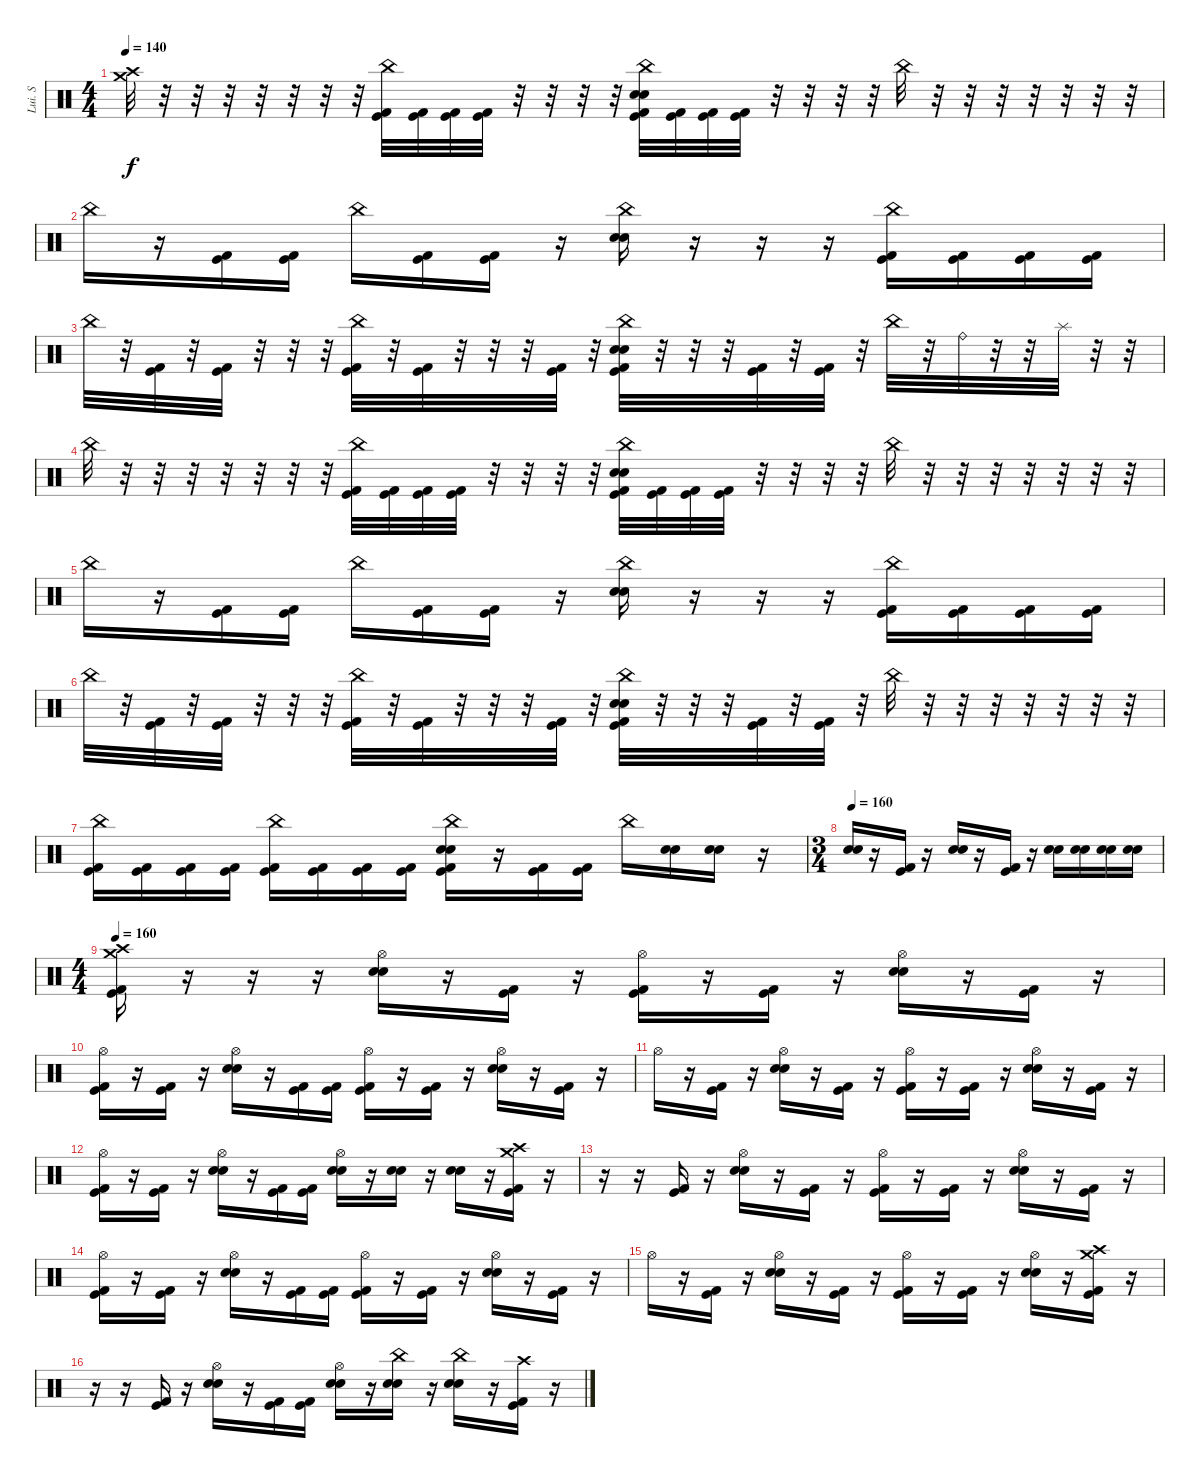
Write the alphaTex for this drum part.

\track ("Lui. S" "Lui. S") {instrument percussion}
\staff {score}
\articulation defaults
\ts (4 4)
\tempo 140
\clef neutral
\ks c
("Crash medium (hit)" "Crash high (hit)").32{dy f} r.32 r.32 r.32 r.32 r.32 r.32 r.32 ("China (hit)" "Kick (hit) 2" "Kick (hit)").32 ("Kick (hit) 2" "Kick (hit)").32 ("Kick (hit) 2" "Kick (hit)").32 ("Kick (hit) 2" "Kick (hit)").32 r.32 r.32 r.32 r.32 ("China (hit)" "Snare (hit) 2" "Electric Snare (hit)" "Kick (hit) 2" "Kick (hit)").32 ("Kick (hit) 2" "Kick (hit)").32 ("Kick (hit) 2" "Kick (hit)").32 ("Kick (hit) 2" "Kick (hit)").32 r.32 r.32 r.32 r.32 "China (hit)".32 r.32 r.32 r.32 r.32 r.32 r.32 r.32 |
"China (hit)".16 r.16 ("Kick (hit) 2" "Kick (hit)").16 ("Kick (hit) 2" "Kick (hit)").16 "China (hit)".16 ("Kick (hit) 2" "Kick (hit)").16 ("Kick (hit) 2" "Kick (hit)").16 r.16 ("China (hit)" "Snare (hit) 2" "Electric Snare (hit)").16 r.16 r.16 r.16 ("China (hit)" "Kick (hit) 2" "Kick (hit)").16 ("Kick (hit) 2" "Kick (hit)").16 ("Kick (hit) 2" "Kick (hit)").16 ("Kick (hit) 2" "Kick (hit)").16 |
"China (hit)".32 r.32 ("Kick (hit) 2" "Kick (hit)").32 r.32 ("Kick (hit) 2" "Kick (hit)").32 r.32 r.32 r.32 ("China (hit)" "Kick (hit) 2" "Kick (hit)").32 r.32 ("Kick (hit) 2" "Kick (hit)").32 r.32 r.32 r.32 ("Kick (hit) 2" "Kick (hit)").32 r.32 ("China (hit)" "Snare (hit) 2" "Electric Snare (hit)" "Kick (hit) 2" "Kick (hit)").32 r.32 r.32 r.32 ("Kick (hit) 2" "Kick (hit)").32 r.32 ("Kick (hit) 2" "Kick (hit)").32 r.32 "China (hit)".32 r.32 "Ride (bell)".32 r.32 r.32 "Splash (hit)".32 r.32 r.32 |
"China (hit)".32 r.32 r.32 r.32 r.32 r.32 r.32 r.32 ("China (hit)" "Kick (hit) 2" "Kick (hit)").32 ("Kick (hit) 2" "Kick (hit)").32 ("Kick (hit) 2" "Kick (hit)").32 ("Kick (hit) 2" "Kick (hit)").32 r.32 r.32 r.32 r.32 ("China (hit)" "Snare (hit) 2" "Electric Snare (hit)" "Kick (hit) 2" "Kick (hit)").32 ("Kick (hit) 2" "Kick (hit)").32 ("Kick (hit) 2" "Kick (hit)").32 ("Kick (hit) 2" "Kick (hit)").32 r.32 r.32 r.32 r.32 "China (hit)".32 r.32 r.32 r.32 r.32 r.32 r.32 r.32 |
"China (hit)".16 r.16 ("Kick (hit) 2" "Kick (hit)").16 ("Kick (hit) 2" "Kick (hit)").16 "China (hit)".16 ("Kick (hit) 2" "Kick (hit)").16 ("Kick (hit) 2" "Kick (hit)").16 r.16 ("China (hit)" "Snare (hit) 2" "Electric Snare (hit)").16 r.16 r.16 r.16 ("China (hit)" "Kick (hit) 2" "Kick (hit)").16 ("Kick (hit) 2" "Kick (hit)").16 ("Kick (hit) 2" "Kick (hit)").16 ("Kick (hit) 2" "Kick (hit)").16 |
"China (hit)".32 r.32 ("Kick (hit) 2" "Kick (hit)").32 r.32 ("Kick (hit) 2" "Kick (hit)").32 r.32 r.32 r.32 ("China (hit)" "Kick (hit) 2" "Kick (hit)").32 r.32 ("Kick (hit) 2" "Kick (hit)").32 r.32 r.32 r.32 ("Kick (hit) 2" "Kick (hit)").32 r.32 ("China (hit)" "Snare (hit) 2" "Electric Snare (hit)" "Kick (hit) 2" "Kick (hit)").32 r.32 r.32 r.32 ("Kick (hit) 2" "Kick (hit)").32 r.32 ("Kick (hit) 2" "Kick (hit)").32 r.32 "China (hit)".32 r.32 r.32 r.32 r.32 r.32 r.32 r.32 |
("China (hit)" "Kick (hit) 2" "Kick (hit)").16 ("Kick (hit) 2" "Kick (hit)").16 ("Kick (hit) 2" "Kick (hit)").16 ("Kick (hit) 2" "Kick (hit)").16 ("China (hit)" "Kick (hit) 2" "Kick (hit)").16 ("Kick (hit) 2" "Kick (hit)").16 ("Kick (hit) 2" "Kick (hit)").16 ("Kick (hit) 2" "Kick (hit)").16 ("China (hit)" "Electric Snare (hit)" "Snare (hit) 2" "Kick (hit) 2" "Kick (hit)").16 r.16 ("Kick (hit) 2" "Kick (hit)").16 ("Kick (hit) 2" "Kick (hit)").16 "China (hit)".16 ("Snare (hit) 2" "Electric Snare (hit)").16 ("Snare (hit) 2" "Electric Snare (hit)").16 r.16 |
\ts (3 4)
\tempo 160
("Snare (hit) 2" "Electric Snare (hit)").16 r.16 ("Kick (hit) 2" "Kick (hit)").16 r.16 ("Snare (hit) 2" "Electric Snare (hit)").16 r.16 ("Kick (hit)" "Kick (hit) 2").16 r.16 ("Snare (hit) 2" "Electric Snare (hit)").16 ("Snare (hit) 2" "Electric Snare (hit)").16 ("Snare (hit) 2" "Electric Snare (hit)").16 ("Snare (hit) 2" "Electric Snare (hit)").16 |
\ts (4 4)
\tempo 160
("Crash high (hit)" "Crash medium (hit)" "Kick (hit) 2" "Kick (hit)").16 r.16 r.16 r.16 ("Hi-Hat (open)" "Snare (hit) 2" "Electric Snare (hit)").16 r.16 ("Kick (hit) 2" "Kick (hit)").16 r.16 ("Hi-Hat (open)" "Kick (hit) 2" "Kick (hit)").16 r.16 ("Kick (hit) 2" "Kick (hit)").16 r.16 ("Hi-Hat (open)" "Electric Snare (hit)" "Snare (hit) 2").16 r.16 ("Kick (hit) 2" "Kick (hit)").16 r.16 |
("Hi-Hat (open)" "Kick (hit) 2" "Kick (hit)").16 r.16 ("Kick (hit) 2" "Kick (hit)").16 r.16 ("Hi-Hat (open)" "Snare (hit) 2" "Electric Snare (hit)").16 r.16 ("Kick (hit) 2" "Kick (hit)").16 ("Kick (hit) 2" "Kick (hit)").16 ("Hi-Hat (open)" "Kick (hit) 2" "Kick (hit)").16 r.16 ("Kick (hit) 2" "Kick (hit)").16 r.16 ("Hi-Hat (open)" "Electric Snare (hit)" "Snare (hit) 2").16 r.16 ("Kick (hit) 2" "Kick (hit)").16 r.16 |
"Hi-Hat (open)".16 r.16 ("Kick (hit) 2" "Kick (hit)").16 r.16 ("Hi-Hat (open)" "Snare (hit) 2" "Electric Snare (hit)").16 r.16 ("Kick (hit) 2" "Kick (hit)").16 r.16 ("Hi-Hat (open)" "Kick (hit) 2" "Kick (hit)").16 r.16 ("Kick (hit) 2" "Kick (hit)").16 r.16 ("Hi-Hat (open)" "Electric Snare (hit)" "Snare (hit) 2").16 r.16 ("Kick (hit) 2" "Kick (hit)").16 r.16 |
("Hi-Hat (open)" "Kick (hit) 2" "Kick (hit)").16 r.16 ("Kick (hit) 2" "Kick (hit)").16 r.16 ("Hi-Hat (open)" "Snare (hit) 2" "Electric Snare (hit)").16 r.16 ("Kick (hit) 2" "Kick (hit)").16 ("Kick (hit) 2" "Kick (hit)").16 ("Hi-Hat (open)" "Snare (hit) 2" "Electric Snare (hit)").16 r.16 ("Snare (hit) 2" "Electric Snare (hit)").16 r.16 ("Snare (hit) 2" "Electric Snare (hit)").16 r.16 ("Crash high (hit)" "Crash medium (hit)" "Kick (hit) 2" "Kick (hit)").16 r.16 |
r.16 r.16 ("Kick (hit) 2" "Kick (hit)").16 r.16 ("Hi-Hat (open)" "Snare (hit) 2" "Electric Snare (hit)").16 r.16 ("Kick (hit) 2" "Kick (hit)").16 r.16 ("Hi-Hat (open)" "Kick (hit) 2" "Kick (hit)").16 r.16 ("Kick (hit) 2" "Kick (hit)").16 r.16 ("Hi-Hat (open)" "Electric Snare (hit)" "Snare (hit) 2").16 r.16 ("Kick (hit) 2" "Kick (hit)").16 r.16 |
("Hi-Hat (open)" "Kick (hit) 2" "Kick (hit)").16 r.16 ("Kick (hit) 2" "Kick (hit)").16 r.16 ("Hi-Hat (open)" "Snare (hit) 2" "Electric Snare (hit)").16 r.16 ("Kick (hit) 2" "Kick (hit)").16 ("Kick (hit) 2" "Kick (hit)").16 ("Hi-Hat (open)" "Kick (hit) 2" "Kick (hit)").16 r.16 ("Kick (hit) 2" "Kick (hit)").16 r.16 ("Hi-Hat (open)" "Electric Snare (hit)" "Snare (hit) 2").16 r.16 ("Kick (hit) 2" "Kick (hit)").16 r.16 |
"Hi-Hat (open)".16 r.16 ("Kick (hit) 2" "Kick (hit)").16 r.16 ("Hi-Hat (open)" "Snare (hit) 2" "Electric Snare (hit)").16 r.16 ("Kick (hit) 2" "Kick (hit)").16 r.16 ("Hi-Hat (open)" "Kick (hit) 2" "Kick (hit)").16 r.16 ("Kick (hit) 2" "Kick (hit)").16 r.16 ("Hi-Hat (open)" "Electric Snare (hit)" "Snare (hit) 2").16 r.16 ("Crash high (hit)" "Crash medium (hit)" "Kick (hit) 2" "Kick (hit)").16 r.16 |
r.16 r.16 ("Kick (hit) 2" "Kick (hit)").16 r.16 ("Hi-Hat (open)" "Snare (hit) 2" "Electric Snare (hit)").16 r.16 ("Kick (hit) 2" "Kick (hit)").16 ("Kick (hit) 2" "Kick (hit)").16 ("Hi-Hat (open)" "Snare (hit) 2" "Electric Snare (hit)").16 r.16 ("China (hit)" "Snare (hit) 2" "Electric Snare (hit)").16 r.16 ("China (hit)" "Snare (hit) 2" "Electric Snare (hit)").16 r.16 ("Crash high (hit)" "Kick (hit) 2" "Kick (hit)").16 r.16
